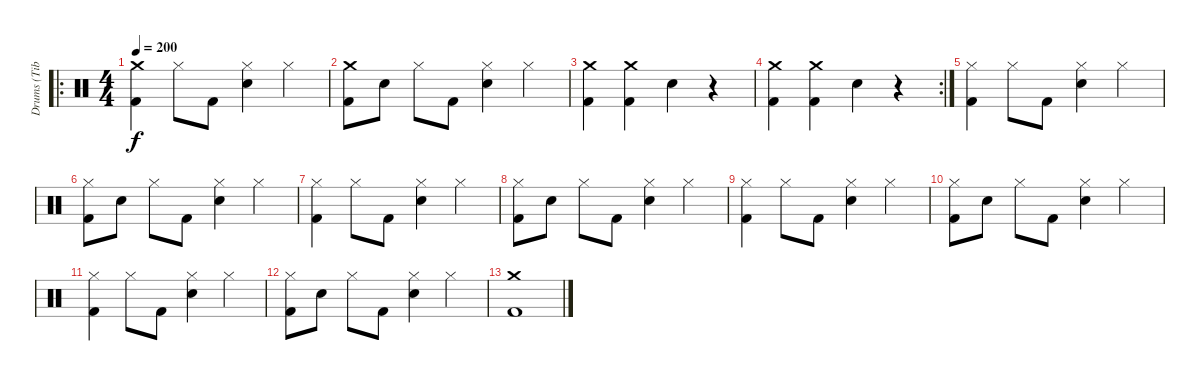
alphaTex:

\track ("Drums (Tibcsi Kiss)" "Drums (Tib") {instrument percussion}
\staff {score}
\articulation defaults
\ro
\ts (4 4)
\tempo 200
\clef neutral
\ks c
("Crash medium (hit)" "Kick (hit) 2").4{dy f} "Hi-Hat (closed)".8 "Kick (hit) 2".8 ("Hi-Hat (closed)" "Snare (hit) 2").4 "Hi-Hat (closed)".4 |
("Crash medium (hit)" "Kick (hit) 2").8 "Snare (hit) 2".8 "Hi-Hat (closed)".8 "Kick (hit) 2".8 ("Hi-Hat (closed)" "Snare (hit) 2").4 "Hi-Hat (closed)".4 |
("Crash medium (hit)" "Kick (hit) 2").4 ("Crash medium (hit)" "Kick (hit) 2").4 "Snare (hit) 2".4 r.4 |
\rc 2
("Crash medium (hit)" "Kick (hit) 2").4 ("Crash medium (hit)" "Kick (hit) 2").4 "Snare (hit) 2".4 r.4 |
("Hi-Hat (closed)" "Kick (hit) 2").4 "Hi-Hat (closed)".8 "Kick (hit) 2".8 ("Hi-Hat (closed)" "Snare (hit) 2").4 "Hi-Hat (closed)".4 |
("Hi-Hat (closed)" "Kick (hit) 2").8 "Snare (hit) 2".8 "Hi-Hat (closed)".8 "Kick (hit) 2".8 ("Hi-Hat (closed)" "Snare (hit) 2").4 "Hi-Hat (closed)".4 |
("Hi-Hat (closed)" "Kick (hit) 2").4 "Hi-Hat (closed)".8 "Kick (hit) 2".8 ("Hi-Hat (closed)" "Snare (hit) 2").4 "Hi-Hat (closed)".4 |
("Hi-Hat (closed)" "Kick (hit) 2").8 "Snare (hit) 2".8 "Hi-Hat (closed)".8 "Kick (hit) 2".8 ("Hi-Hat (closed)" "Snare (hit) 2").4 "Hi-Hat (closed)".4 |
("Hi-Hat (closed)" "Kick (hit) 2").4 "Hi-Hat (closed)".8 "Kick (hit) 2".8 ("Hi-Hat (closed)" "Snare (hit) 2").4 "Hi-Hat (closed)".4 |
("Hi-Hat (closed)" "Kick (hit) 2").8 "Snare (hit) 2".8 "Hi-Hat (closed)".8 "Kick (hit) 2".8 ("Hi-Hat (closed)" "Snare (hit) 2").4 "Hi-Hat (closed)".4 |
("Hi-Hat (closed)" "Kick (hit) 2").4 "Hi-Hat (closed)".8 "Kick (hit) 2".8 ("Hi-Hat (closed)" "Snare (hit) 2").4 "Hi-Hat (closed)".4 |
("Hi-Hat (closed)" "Kick (hit) 2").8 "Snare (hit) 2".8 "Hi-Hat (closed)".8 "Kick (hit) 2".8 ("Hi-Hat (closed)" "Snare (hit) 2").4 "Hi-Hat (closed)".4 |
("Crash medium (hit)" "Kick (hit) 2").1
